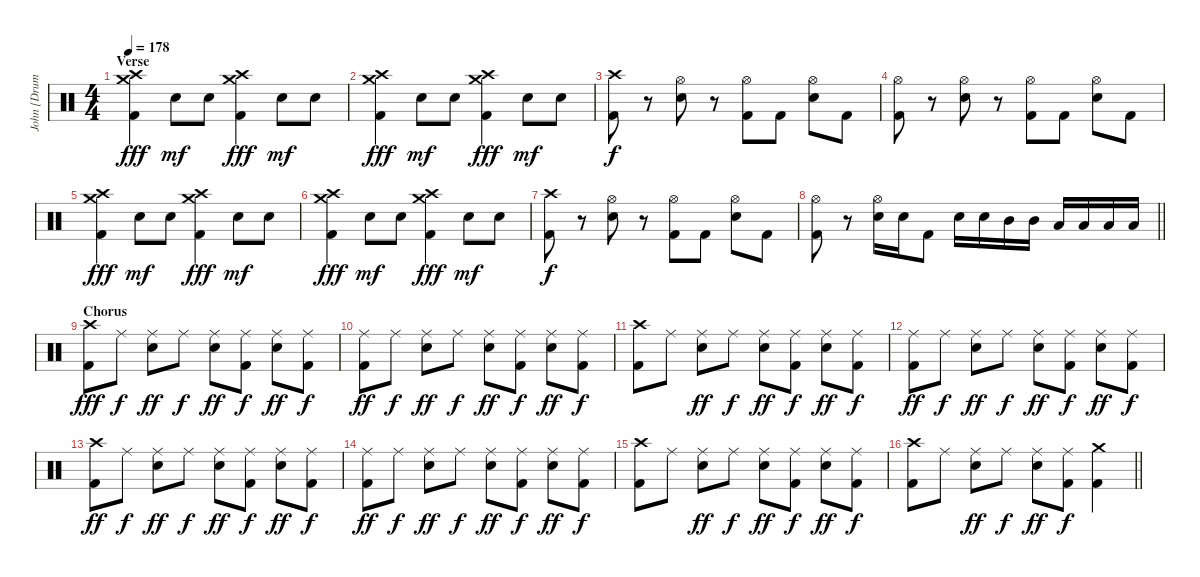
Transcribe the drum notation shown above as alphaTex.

\track ("John [Drums]" "John [Drum") {instrument percussion}
\staff {score}
\articulation defaults
\ts (4 4)
\section ("" "Verse")
\tempo 178
\clef neutral
\ks c
("Crash high (hit)" "Crash medium (hit)" "Kick (hit) 2").4{dy fff} "Electric Snare (hit)".8{dy mf} "Electric Snare (hit)".8 ("Crash medium (hit)" "Crash high (hit)" "Kick (hit) 2").4{dy fff} "Electric Snare (hit)".8{dy mf} "Electric Snare (hit)".8 |
("Crash high (hit)" "Crash medium (hit)" "Kick (hit) 2").4{dy fff} "Electric Snare (hit)".8{dy mf} "Electric Snare (hit)".8 ("Crash medium (hit)" "Crash high (hit)" "Kick (hit) 2").4{dy fff} "Electric Snare (hit)".8{dy mf} "Electric Snare (hit)".8 |
("Crash high (hit)" "Kick (hit) 2").8{dy f} r.8 ("Hi-Hat (open)" "Electric Snare (hit)").8 r.8 ("Hi-Hat (open)" "Kick (hit) 2").8 "Kick (hit) 2".8 ("Hi-Hat (open)" "Electric Snare (hit)").8 "Kick (hit) 2".8 |
("Hi-Hat (open)" "Kick (hit) 2").8 r.8 ("Hi-Hat (open)" "Electric Snare (hit)").8 r.8 ("Hi-Hat (open)" "Kick (hit) 2").8 "Kick (hit) 2".8 ("Hi-Hat (open)" "Electric Snare (hit)").8 "Kick (hit) 2".8 |
("Crash high (hit)" "Crash medium (hit)" "Kick (hit) 2").4{dy fff} "Electric Snare (hit)".8{dy mf} "Electric Snare (hit)".8 ("Crash medium (hit)" "Crash high (hit)" "Kick (hit) 2").4{dy fff} "Electric Snare (hit)".8{dy mf} "Electric Snare (hit)".8 |
("Crash high (hit)" "Crash medium (hit)" "Kick (hit) 2").4{dy fff} "Electric Snare (hit)".8{dy mf} "Electric Snare (hit)".8 ("Crash medium (hit)" "Crash high (hit)" "Kick (hit) 2").4{dy fff} "Electric Snare (hit)".8{dy mf} "Electric Snare (hit)".8 |
("Crash high (hit)" "Kick (hit) 2").8{dy f} r.8 ("Hi-Hat (open)" "Electric Snare (hit)").8 r.8 ("Hi-Hat (open)" "Kick (hit) 2").8 "Kick (hit) 2".8 ("Hi-Hat (open)" "Electric Snare (hit)").8 "Kick (hit) 2".8 |
\barLineRight lightlight
("Hi-Hat (open)" "Kick (hit) 2").8 r.8 ("Hi-Hat (open)" "Electric Snare (hit)").16 "Electric Snare (hit)".16 "Kick (hit) 2".8 "Electric Snare (hit)".16 "Electric Snare (hit)".16 "Mid Tom (hit)".16 "Mid Tom (hit)".16 "Low Tom (hit)".16 "Low Tom (hit)".16 "Low Tom (hit)".16 "Low Tom (hit)".16 |
\section ("" "Chorus")
("Crash high (hit)" "Kick (hit) 2").8{dy fff} "Ride (middle)".8{dy f} ("Ride (middle)" "Electric Snare (hit)").8{dy ff} "Ride (middle)".8{dy f} ("Ride (middle)" "Electric Snare (hit)").8{dy ff} ("Ride (middle)" "Kick (hit) 2").8{dy f} ("Ride (middle)" "Electric Snare (hit)").8{dy ff} ("Ride (middle)" "Kick (hit) 2").8{dy f} |
("Ride (middle)" "Kick (hit) 2").8{dy ff} "Ride (middle)".8{dy f} ("Ride (middle)" "Electric Snare (hit)").8{dy ff} "Ride (middle)".8{dy f} ("Ride (middle)" "Electric Snare (hit)").8{dy ff} ("Ride (middle)" "Kick (hit) 2").8{dy f} ("Ride (middle)" "Electric Snare (hit)").8{dy ff} ("Ride (middle)" "Kick (hit) 2").8{dy f} |
("Crash high (hit)" "Kick (hit) 2").8 "Ride (middle)".8 ("Ride (middle)" "Electric Snare (hit)").8{dy ff} "Ride (middle)".8{dy f} ("Ride (middle)" "Electric Snare (hit)").8{dy ff} ("Ride (middle)" "Kick (hit) 2").8{dy f} ("Ride (middle)" "Electric Snare (hit)").8{dy ff} ("Ride (middle)" "Kick (hit) 2").8{dy f} |
("Ride (middle)" "Kick (hit) 2").8{dy ff} "Ride (middle)".8{dy f} ("Ride (middle)" "Electric Snare (hit)").8{dy ff} "Ride (middle)".8{dy f} ("Ride (middle)" "Electric Snare (hit)").8{dy ff} ("Ride (middle)" "Kick (hit) 2").8{dy f} ("Ride (middle)" "Electric Snare (hit)").8{dy ff} ("Ride (middle)" "Kick (hit) 2").8{dy f} |
("Crash high (hit)" "Kick (hit) 2").8{dy ff} "Ride (middle)".8{dy f} ("Ride (middle)" "Electric Snare (hit)").8{dy ff} "Ride (middle)".8{dy f} ("Ride (middle)" "Electric Snare (hit)").8{dy ff} ("Ride (middle)" "Kick (hit) 2").8{dy f} ("Ride (middle)" "Electric Snare (hit)").8{dy ff} ("Ride (middle)" "Kick (hit) 2").8{dy f} |
("Ride (middle)" "Kick (hit) 2").8{dy ff} "Ride (middle)".8{dy f} ("Ride (middle)" "Electric Snare (hit)").8{dy ff} "Ride (middle)".8{dy f} ("Ride (middle)" "Electric Snare (hit)").8{dy ff} ("Ride (middle)" "Kick (hit) 2").8{dy f} ("Ride (middle)" "Electric Snare (hit)").8{dy ff} ("Ride (middle)" "Kick (hit) 2").8{dy f} |
("Crash high (hit)" "Kick (hit) 2").8 "Ride (middle)".8 ("Ride (middle)" "Electric Snare (hit)").8{dy ff} "Ride (middle)".8{dy f} ("Ride (middle)" "Electric Snare (hit)").8{dy ff} ("Ride (middle)" "Kick (hit) 2").8{dy f} ("Ride (middle)" "Electric Snare (hit)").8{dy ff} ("Ride (middle)" "Kick (hit) 2").8{dy f} |
\barLineRight lightlight
("Crash high (hit)" "Kick (hit) 2").8 "Ride (middle)".8 ("Ride (middle)" "Electric Snare (hit)").8{dy ff} "Ride (middle)".8{dy f} ("Ride (middle)" "Electric Snare (hit)").8{dy ff} ("Ride (middle)" "Kick (hit) 2").8{dy f} ("Crash medium (hit)" "Kick (hit) 2").4
